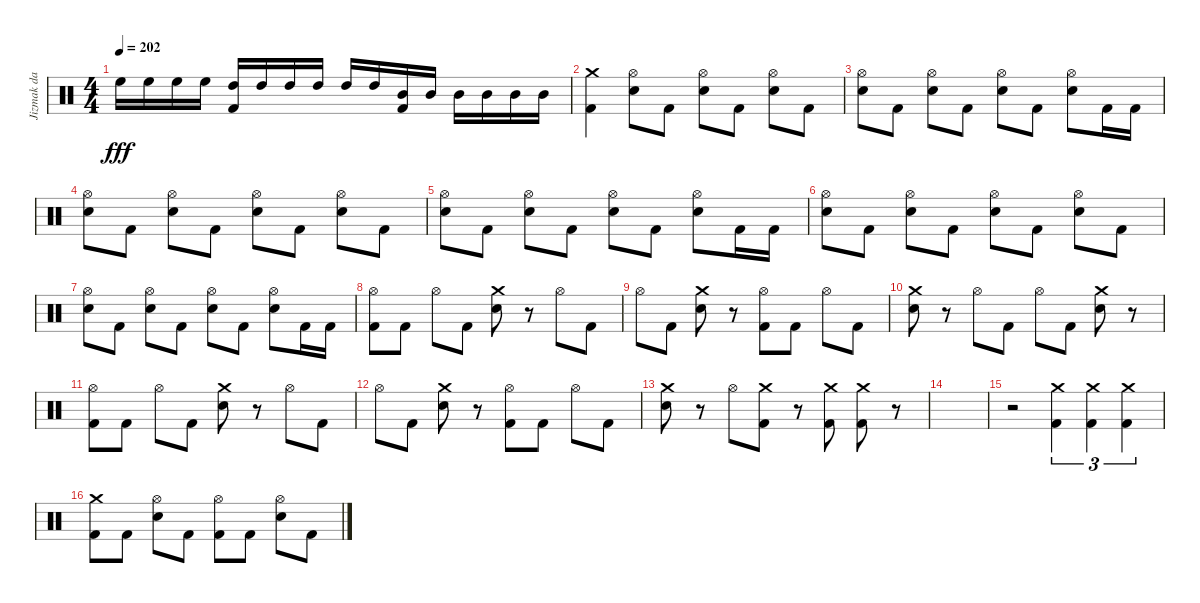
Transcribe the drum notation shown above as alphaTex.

\track ("Jizmak da Gusha" "Jizmak da ") {instrument percussion}
\staff {score}
\articulation defaults
\ts (4 4)
\tempo 202
\clef neutral
\ks c "High Floor Tom (hit)".16{dy fff} "High Floor Tom (hit)".16 "High Floor Tom (hit)".16 "High Floor Tom (hit)".16
("High Tom (hit)" "Kick (hit) 2").16 "High Tom (hit)".16 "High Tom (hit)".16 "High Tom (hit)".16 "High Tom (hit)".16 "High Tom (hit)".16 ("Mid Tom (hit)" "Kick (hit) 2").16 "Mid Tom (hit)".16 "Mid Tom (hit)".16 "Mid Tom (hit)".16 "Mid Tom (hit)".16 "Mid Tom (hit)".16 |
("Crash medium (hit)" "Kick (hit) 2").4 ("Hi-Hat (open)" "Electric Snare (hit)").8 "Kick (hit) 2".8 ("Hi-Hat (open)" "Electric Snare (hit)").8 "Kick (hit) 2".8 ("Hi-Hat (open)" "Electric Snare (hit)").8 "Kick (hit) 2".8 |
("Hi-Hat (open)" "Electric Snare (hit)").8 "Kick (hit) 2".8 ("Hi-Hat (open)" "Electric Snare (hit)").8 "Kick (hit) 2".8 ("Hi-Hat (open)" "Electric Snare (hit)").8 "Kick (hit) 2".8 ("Hi-Hat (open)" "Electric Snare (hit)").8 "Kick (hit) 2".16 "Kick (hit) 2".16 |
("Hi-Hat (open)" "Electric Snare (hit)").8 "Kick (hit) 2".8 ("Hi-Hat (open)" "Electric Snare (hit)").8 "Kick (hit) 2".8 ("Hi-Hat (open)" "Electric Snare (hit)").8 "Kick (hit) 2".8 ("Hi-Hat (open)" "Electric Snare (hit)").8 "Kick (hit) 2".8 |
("Hi-Hat (open)" "Electric Snare (hit)").8 "Kick (hit) 2".8 ("Hi-Hat (open)" "Electric Snare (hit)").8 "Kick (hit) 2".8 ("Hi-Hat (open)" "Electric Snare (hit)").8 "Kick (hit) 2".8 ("Hi-Hat (open)" "Electric Snare (hit)").8 "Kick (hit) 2".16 "Kick (hit) 2".16 |
("Hi-Hat (open)" "Electric Snare (hit)").8 "Kick (hit) 2".8 ("Hi-Hat (open)" "Electric Snare (hit)").8 "Kick (hit) 2".8 ("Hi-Hat (open)" "Electric Snare (hit)").8 "Kick (hit) 2".8 ("Hi-Hat (open)" "Electric Snare (hit)").8 "Kick (hit) 2".8 |
("Hi-Hat (open)" "Electric Snare (hit)").8 "Kick (hit) 2".8 ("Hi-Hat (open)" "Electric Snare (hit)").8 "Kick (hit) 2".8 ("Hi-Hat (open)" "Electric Snare (hit)").8 "Kick (hit) 2".8 ("Hi-Hat (open)" "Electric Snare (hit)").8 "Kick (hit) 2".16 "Kick (hit) 2".16 |
("Hi-Hat (open)" "Kick (hit) 2").8 "Kick (hit) 2".8 "Hi-Hat (open)".8 "Kick (hit) 2".8 ("Crash medium (hit)" "Electric Snare (hit)").8 r.8 "Hi-Hat (open)".8 "Kick (hit) 2".8 |
"Hi-Hat (open)".8 "Kick (hit) 2".8 ("Crash medium (hit)" "Electric Snare (hit)").8 r.8 ("Hi-Hat (open)" "Kick (hit) 2").8 "Kick (hit) 2".8 "Hi-Hat (open)".8 "Kick (hit) 2".8 |
("Crash medium (hit)" "Electric Snare (hit)").8 r.8 "Hi-Hat (open)".8 "Kick (hit) 2".8 "Hi-Hat (open)".8 "Kick (hit) 2".8 ("Crash medium (hit)" "Electric Snare (hit)").8 r.8 |
("Hi-Hat (open)" "Kick (hit) 2").8 "Kick (hit) 2".8 "Hi-Hat (open)".8 "Kick (hit) 2".8 ("Crash medium (hit)" "Electric Snare (hit)").8 r.8 "Hi-Hat (open)".8 "Kick (hit) 2".8 |
"Hi-Hat (open)".8 "Kick (hit) 2".8 ("Crash medium (hit)" "Electric Snare (hit)").8 r.8 ("Hi-Hat (open)" "Kick (hit) 2").8 "Kick (hit) 2".8 "Hi-Hat (open)".8 "Kick (hit) 2".8 |
("Crash medium (hit)" "Electric Snare (hit)").8 r.8 "Hi-Hat (open)".8 ("Crash medium (hit)" "Kick (hit) 2").8 r.8 ("Crash medium (hit)" "Kick (hit) 2").8 ("Crash medium (hit)" "Kick (hit) 2").8 r.8 |
|
r.2 ("Crash medium (hit)" "Kick (hit) 2").4{tu (3 2)} ("Crash medium (hit)" "Kick (hit) 2").4{tu (3 2)} ("Crash medium (hit)" "Kick (hit) 2").4{tu (3 2)} |
("Crash medium (hit)" "Kick (hit) 2").8 "Kick (hit) 2".8 ("Hi-Hat (open)" "Electric Snare (hit)").8 "Kick (hit) 2".8 ("Hi-Hat (open)" "Kick (hit) 2").8 "Kick (hit) 2".8 ("Hi-Hat (open)" "Electric Snare (hit)").8 "Kick (hit) 2".8
